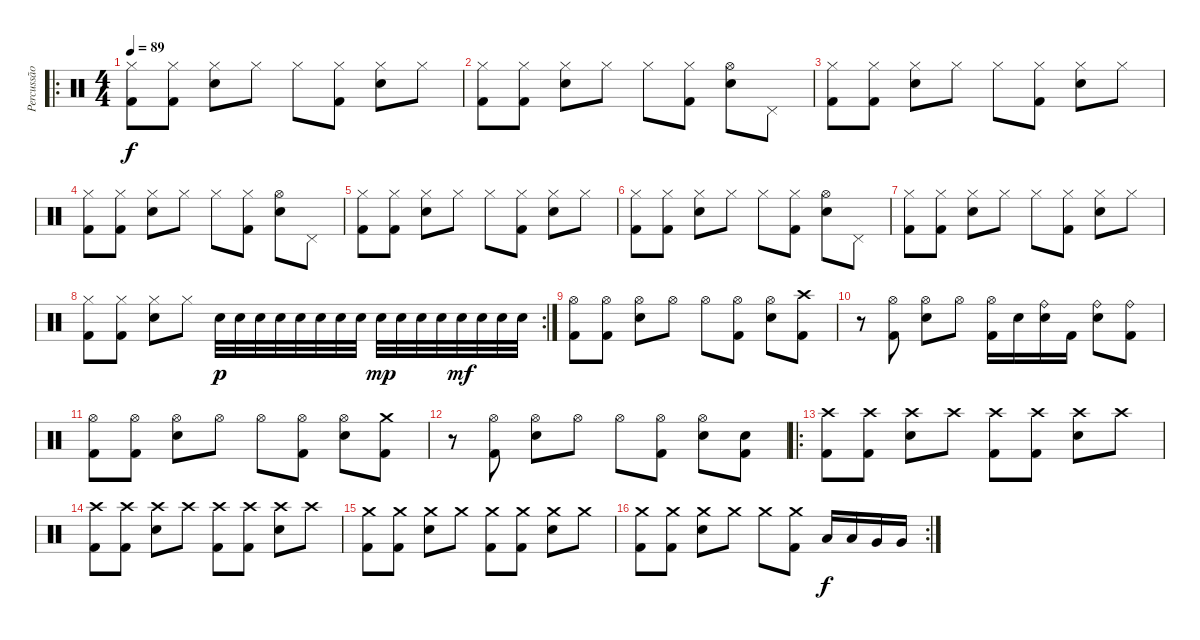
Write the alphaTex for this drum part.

\track ("Percussão" "Percussão") {instrument percussion}
\staff {score}
\articulation defaults
\ro
\ts (4 4)
\tempo 89
\clef neutral
\ks c
("Hi-Hat (closed)" "Kick (hit) 2").8{dy f} ("Hi-Hat (closed)" "Kick (hit) 2").8 ("Hi-Hat (closed)" "Electric Snare (hit)").8 "Hi-Hat (closed)".8 "Hi-Hat (closed)".8 ("Hi-Hat (closed)" "Kick (hit) 2").8 ("Hi-Hat (closed)" "Electric Snare (hit)").8 "Hi-Hat (closed)".8 |
("Hi-Hat (closed)" "Kick (hit) 2").8 ("Hi-Hat (closed)" "Kick (hit) 2").8 ("Hi-Hat (closed)" "Electric Snare (hit)").8 "Hi-Hat (closed)".8 "Hi-Hat (closed)".8 ("Hi-Hat (closed)" "Kick (hit) 2").8 ("Hi-Hat (open)" "Electric Snare (hit)").8 "Pedal Hi-Hat (hit)".8 |
("Hi-Hat (closed)" "Kick (hit) 2").8 ("Hi-Hat (closed)" "Kick (hit) 2").8 ("Hi-Hat (closed)" "Electric Snare (hit)").8 "Hi-Hat (closed)".8 "Hi-Hat (closed)".8 ("Hi-Hat (closed)" "Kick (hit) 2").8 ("Hi-Hat (closed)" "Electric Snare (hit)").8 "Hi-Hat (closed)".8 |
("Hi-Hat (closed)" "Kick (hit) 2").8 ("Hi-Hat (closed)" "Kick (hit) 2").8 ("Hi-Hat (closed)" "Electric Snare (hit)").8 "Hi-Hat (closed)".8 "Hi-Hat (closed)".8 ("Hi-Hat (closed)" "Kick (hit) 2").8 ("Hi-Hat (open)" "Electric Snare (hit)").8 "Pedal Hi-Hat (hit)".8 |
("Hi-Hat (closed)" "Kick (hit) 2").8 ("Hi-Hat (closed)" "Kick (hit) 2").8 ("Hi-Hat (closed)" "Electric Snare (hit)").8 "Hi-Hat (closed)".8 "Hi-Hat (closed)".8 ("Hi-Hat (closed)" "Kick (hit) 2").8 ("Hi-Hat (closed)" "Electric Snare (hit)").8 "Hi-Hat (closed)".8 |
("Hi-Hat (closed)" "Kick (hit) 2").8 ("Hi-Hat (closed)" "Kick (hit) 2").8 ("Hi-Hat (closed)" "Electric Snare (hit)").8 "Hi-Hat (closed)".8 "Hi-Hat (closed)".8 ("Hi-Hat (closed)" "Kick (hit) 2").8 ("Hi-Hat (open)" "Electric Snare (hit)").8 "Pedal Hi-Hat (hit)".8 |
("Hi-Hat (closed)" "Kick (hit) 2").8 ("Hi-Hat (closed)" "Kick (hit) 2").8 ("Hi-Hat (closed)" "Electric Snare (hit)").8 "Hi-Hat (closed)".8 "Hi-Hat (closed)".8 ("Hi-Hat (closed)" "Kick (hit) 2").8 ("Hi-Hat (closed)" "Electric Snare (hit)").8 "Hi-Hat (closed)".8 |
\rc 2
("Hi-Hat (closed)" "Kick (hit) 2").8 ("Hi-Hat (closed)" "Kick (hit) 2").8 ("Hi-Hat (closed)" "Electric Snare (hit)").8 "Hi-Hat (closed)".8 "Electric Snare (hit)".32{dy p} "Electric Snare (hit)".32 "Electric Snare (hit)".32 "Electric Snare (hit)".32 "Electric Snare (hit)".32 "Electric Snare (hit)".32 "Electric Snare (hit)".32 "Electric Snare (hit)".32 "Electric Snare (hit)".32{dy mp} "Electric Snare (hit)".32 "Electric Snare (hit)".32 "Electric Snare (hit)".32 "Electric Snare (hit)".32{dy mf} "Electric Snare (hit)".32 "Electric Snare (hit)".32 "Electric Snare (hit)".32 |
("Hi-Hat (open)" "Kick (hit) 2").8 ("Hi-Hat (open)" "Kick (hit) 2").8 ("Hi-Hat (open)" "Electric Snare (hit)").8 "Hi-Hat (open)".8 "Hi-Hat (open)".8 ("Hi-Hat (open)" "Kick (hit) 2").8 ("Hi-Hat (open)" "Electric Snare (hit)").8 ("Crash high (hit)" "Kick (hit) 2").8 |
r.8 ("Hi-Hat (open)" "Kick (hit) 2").8 ("Hi-Hat (open)" "Electric Snare (hit)").8 "Hi-Hat (open)".8 ("Hi-Hat (open)" "Kick (hit) 2").16 "Electric Snare (hit)".16 ("Ride (bell)" "Electric Snare (hit)").16 "Kick (hit) 2".16 ("Ride (bell)" "Electric Snare (hit)").8 ("Ride (bell)" "Kick (hit) 2").8 |
("Hi-Hat (open)" "Kick (hit) 2").8 ("Hi-Hat (open)" "Kick (hit) 2").8 ("Hi-Hat (open)" "Electric Snare (hit)").8 "Hi-Hat (open)".8 "Hi-Hat (open)".8 ("Hi-Hat (open)" "Kick (hit) 2").8 ("Hi-Hat (open)" "Electric Snare (hit)").8 ("Crash medium (hit)" "Kick (hit) 2").8 |
r.8 ("Hi-Hat (open)" "Kick (hit) 2").8 ("Hi-Hat (open)" "Electric Snare (hit)").8 "Hi-Hat (open)".8 "Hi-Hat (open)".8 ("Hi-Hat (open)" "Kick (hit) 2").8 ("Hi-Hat (open)" "Electric Snare (hit)").8 ("Electric Snare (hit)" "Kick (hit) 2").8 |
\ro
("Crash high (hit)" "Kick (hit) 2").8 ("Crash high (hit)" "Kick (hit) 2").8 ("Crash high (hit)" "Electric Snare (hit)").8 "Crash high (hit)".8 ("Crash high (hit)" "Kick (hit) 2").8 ("Crash high (hit)" "Kick (hit) 2").8 ("Crash high (hit)" "Electric Snare (hit)").8 "Crash high (hit)".8 |
("Crash high (hit)" "Kick (hit) 2").8 ("Crash high (hit)" "Kick (hit) 2").8 ("Crash high (hit)" "Electric Snare (hit)").8 "Crash high (hit)".8 ("Crash high (hit)" "Kick (hit) 2").8 ("Crash high (hit)" "Kick (hit) 2").8 ("Crash high (hit)" "Electric Snare (hit)").8 "Crash high (hit)".8 |
("Crash medium (hit)" "Kick (hit) 2").8 ("Crash medium (hit)" "Kick (hit) 2").8 ("Crash medium (hit)" "Electric Snare (hit)").8 "Crash medium (hit)".8 ("Crash medium (hit)" "Kick (hit) 2").8 ("Crash medium (hit)" "Kick (hit) 2").8 ("Crash medium (hit)" "Electric Snare (hit)").8 "Crash medium (hit)".8 |
\rc 2
("Crash medium (hit)" "Kick (hit) 2").8 ("Crash medium (hit)" "Kick (hit) 2").8 ("Crash medium (hit)" "Electric Snare (hit)").8 "Crash medium (hit)".8 "Crash medium (hit)".8 ("Crash medium (hit)" "Kick (hit) 2").8 "Low Tom (hit)".16{dy f} "Low Tom (hit)".16 "Very Low Tom (hit)".16 "Very Low Tom (hit)".16
